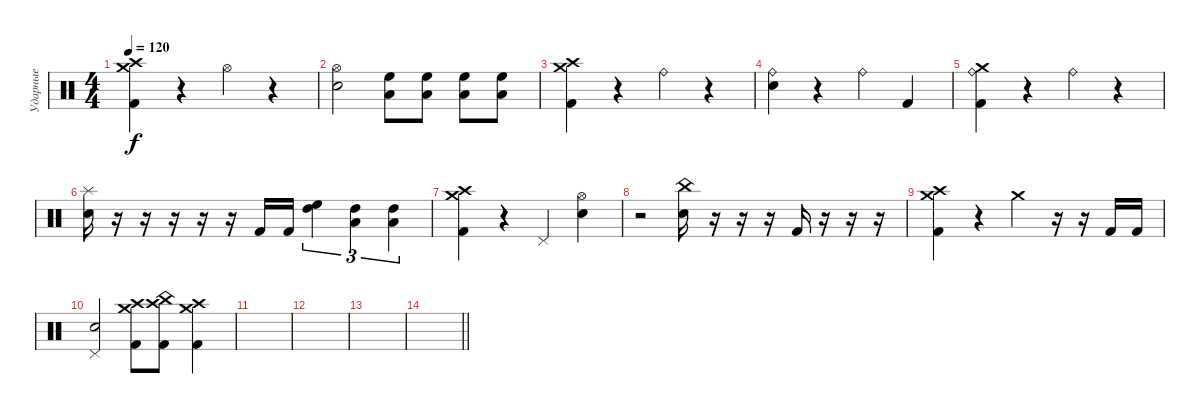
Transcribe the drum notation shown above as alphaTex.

\track ("Ударные" "Ударные") {instrument percussion}
\staff {score}
\articulation defaults
\ts (4 4)
\tempo 120
\clef neutral
\ks c
("Crash high (hit)" "Crash medium (hit)" "Kick (hit) 2").4{dy f} r.4 "Hi-Hat (open)".4 r.4 |
("Hi-Hat (open)" "Electric Snare (hit)").2 ("High Floor Tom (hit)" "Low Tom (hit)").8 ("High Floor Tom (hit)" "Low Tom (hit)").8 ("High Floor Tom (hit)" "Low Tom (hit)").8 ("High Floor Tom (hit)" "Low Tom (hit)").8 |
("Crash high (hit)" "Crash medium (hit)" "Kick (hit) 2").4 r.4 "Ride (bell)".4 r.4 |
("Ride (bell)" "Electric Snare (hit)").4 r.4 "Ride (bell)".4 "Kick (hit) 2".4 |
("Ride (bell)" "Crash medium (hit)" "Kick (hit) 2").4 r.4 "Ride (bell)".4 r.4 |
("Splash (hit)" "Electric Snare (hit)").16 r.16 r.16 r.16 r.16 r.16 "Kick (hit) 2".16 "Kick (hit) 2".16 ("High Floor Tom (hit)" "High Tom (hit)").4{tu (3 2)} ("Low Tom (hit)" "High Tom (hit)").4{tu (3 2)} ("Low Tom (hit)" "High Tom (hit)").4{tu (3 2)} |
("Crash high (hit)" "Crash medium (hit)" "Kick (hit) 2").4 r.4 "Pedal Hi-Hat (hit)".4 ("Hi-Hat (open)" "Electric Snare (hit)").4 |
r.2 ("China (hit)" "Electric Snare (hit)").16 r.16 r.16 r.16 "Kick (hit) 2".16 r.16 r.16 r.16 |
("Crash high (hit)" "Crash medium (hit)" "Kick (hit) 2").4 r.4 "Crash medium (hit)".4 r.16 r.16 "Kick (hit) 2".16 "Kick (hit) 2".16 |
("Pedal Hi-Hat (hit)" "Electric Snare (hit)").2 ("Crash medium (hit)" "Crash high (hit)" "Kick (hit) 2").8 ("China (hit)" "Crash high (hit)" "Kick (hit) 2").8 ("Crash medium (hit)" "Crash high (hit)" "Kick (hit) 2").4 |
|
|
|
\barLineRight lightlight
